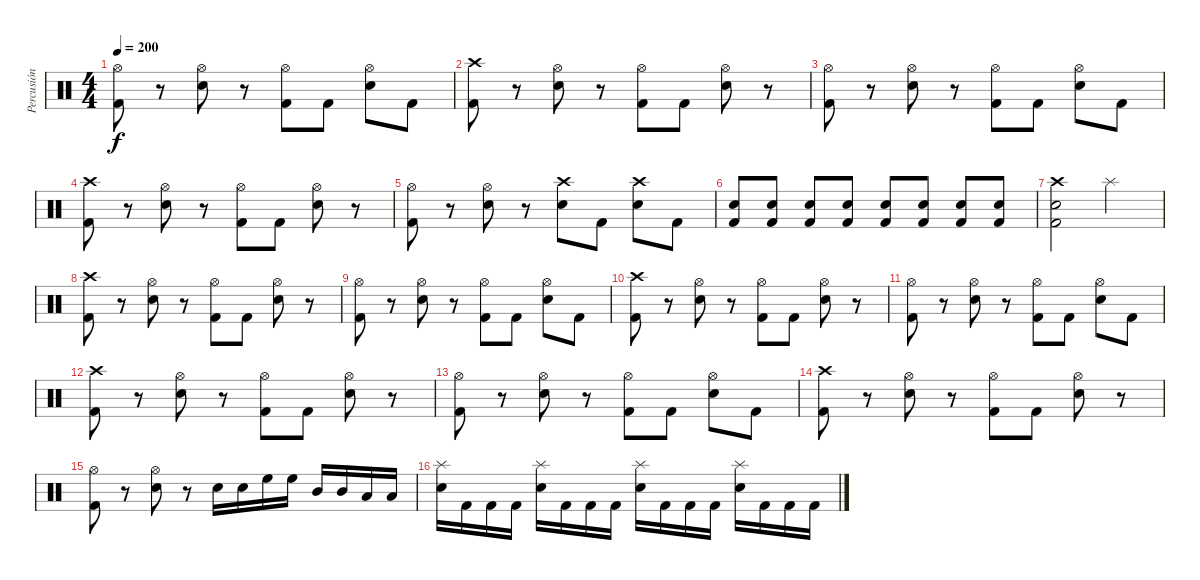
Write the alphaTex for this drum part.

\track ("Percusión" "Percusión") {instrument percussion}
\staff {score}
\articulation defaults
\ts (4 4)
\tempo 200
\clef neutral
\ks c
("Hi-Hat (open)" "Kick (hit) 2").8{dy f} r.8 ("Hi-Hat (open)" "Electric Snare (hit)").8 r.8 ("Hi-Hat (open)" "Kick (hit) 2").8 "Kick (hit) 2".8 ("Hi-Hat (open)" "Electric Snare (hit)").8 "Kick (hit) 2".8 |
("Crash high (hit)" "Kick (hit) 2").8 r.8 ("Hi-Hat (open)" "Electric Snare (hit)").8 r.8 ("Hi-Hat (open)" "Kick (hit) 2").8 "Kick (hit) 2".8 ("Hi-Hat (open)" "Electric Snare (hit)").8 r.8 |
("Hi-Hat (open)" "Kick (hit) 2").8 r.8 ("Hi-Hat (open)" "Electric Snare (hit)").8 r.8 ("Hi-Hat (open)" "Kick (hit) 2").8 "Kick (hit) 2".8 ("Hi-Hat (open)" "Electric Snare (hit)").8 "Kick (hit) 2".8 |
("Crash high (hit)" "Kick (hit) 2").8 r.8 ("Hi-Hat (open)" "Electric Snare (hit)").8 r.8 ("Hi-Hat (open)" "Kick (hit) 2").8 "Kick (hit) 2".8 ("Hi-Hat (open)" "Electric Snare (hit)").8 r.8 |
("Hi-Hat (open)" "Kick (hit) 2").8 r.8 ("Hi-Hat (open)" "Electric Snare (hit)").8 r.8 ("Crash high (hit)" "Electric Snare (hit)").8 "Kick (hit) 2".8 ("Crash high (hit)" "Electric Snare (hit)").8 "Kick (hit) 2".8 |
("Electric Snare (hit)" "Kick (hit) 2").8 ("Electric Snare (hit)" "Kick (hit) 2").8 ("Electric Snare (hit)" "Kick (hit) 2").8 ("Electric Snare (hit)" "Kick (hit) 2").8 ("Electric Snare (hit)" "Kick (hit) 2").8 ("Electric Snare (hit)" "Kick (hit) 2").8 ("Electric Snare (hit)" "Kick (hit) 2").8 ("Electric Snare (hit)" "Kick (hit) 2").8 |
("Crash high (hit)" "Electric Snare (hit)" "Kick (hit) 2").2 "Splash (hit)".2 |
("Crash high (hit)" "Kick (hit) 2").8 r.8 ("Hi-Hat (open)" "Electric Snare (hit)").8 r.8 ("Hi-Hat (open)" "Kick (hit) 2").8 "Kick (hit) 2".8 ("Hi-Hat (open)" "Electric Snare (hit)").8 r.8 |
("Hi-Hat (open)" "Kick (hit) 2").8 r.8 ("Hi-Hat (open)" "Electric Snare (hit)").8 r.8 ("Hi-Hat (open)" "Kick (hit) 2").8 "Kick (hit) 2".8 ("Hi-Hat (open)" "Electric Snare (hit)").8 "Kick (hit) 2".8 |
("Crash high (hit)" "Kick (hit) 2").8 r.8 ("Hi-Hat (open)" "Electric Snare (hit)").8 r.8 ("Hi-Hat (open)" "Kick (hit) 2").8 "Kick (hit) 2".8 ("Hi-Hat (open)" "Electric Snare (hit)").8 r.8 |
("Hi-Hat (open)" "Kick (hit) 2").8 r.8 ("Hi-Hat (open)" "Electric Snare (hit)").8 r.8 ("Hi-Hat (open)" "Kick (hit) 2").8 "Kick (hit) 2".8 ("Hi-Hat (open)" "Electric Snare (hit)").8 "Kick (hit) 2".8 |
("Crash high (hit)" "Kick (hit) 2").8 r.8 ("Hi-Hat (open)" "Electric Snare (hit)").8 r.8 ("Hi-Hat (open)" "Kick (hit) 2").8 "Kick (hit) 2".8 ("Hi-Hat (open)" "Electric Snare (hit)").8 r.8 |
("Hi-Hat (open)" "Kick (hit) 2").8 r.8 ("Hi-Hat (open)" "Electric Snare (hit)").8 r.8 ("Hi-Hat (open)" "Kick (hit) 2").8 "Kick (hit) 2".8 ("Hi-Hat (open)" "Electric Snare (hit)").8 "Kick (hit) 2".8 |
("Crash high (hit)" "Kick (hit) 2").8 r.8 ("Hi-Hat (open)" "Electric Snare (hit)").8 r.8 ("Hi-Hat (open)" "Kick (hit) 2").8 "Kick (hit) 2".8 ("Hi-Hat (open)" "Electric Snare (hit)").8 r.8 |
("Hi-Hat (open)" "Kick (hit) 2").8 r.8 ("Hi-Hat (open)" "Electric Snare (hit)").8 r.8 "Electric Snare (hit)".16 "Electric Snare (hit)".16 "High Floor Tom (hit)".16 "High Floor Tom (hit)".16 "Mid Tom (hit)".16 "Mid Tom (hit)".16 "Low Tom (hit)".16 "Low Tom (hit)".16 |
("Splash (hit)" "Electric Snare (hit)").16 "Kick (hit) 2".16 "Kick (hit) 2".16 "Kick (hit) 2".16 ("Splash (hit)" "Electric Snare (hit)").16 "Kick (hit) 2".16 "Kick (hit) 2".16 "Kick (hit) 2".16 ("Splash (hit)" "Electric Snare (hit)").16 "Kick (hit) 2".16 "Kick (hit) 2".16 "Kick (hit) 2".16 ("Splash (hit)" "Electric Snare (hit)").16 "Kick (hit) 2".16 "Kick (hit) 2".16 "Kick (hit) 2".16
